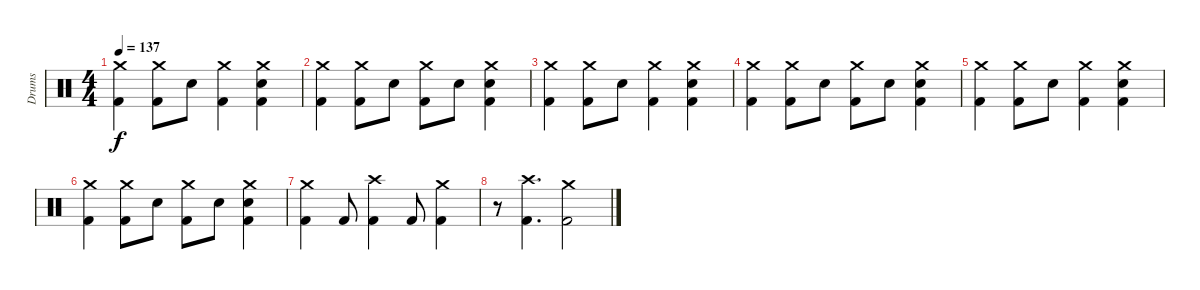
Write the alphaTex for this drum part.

\track ("Drums" "Drums") {instrument percussion}
\staff {score}
\articulation defaults
\ts (4 4)
\tempo 137
\clef neutral
\ks c
("Crash medium (hit)" "Kick (hit) 2").4{dy f} ("Crash medium (hit)" "Kick (hit) 2").8 "Electric Snare (hit)".8 ("Crash medium (hit)" "Kick (hit) 2").4 ("Crash medium (hit)" "Electric Snare (hit)" "Kick (hit) 2").4 |
("Crash medium (hit)" "Kick (hit) 2").4 ("Crash medium (hit)" "Kick (hit) 2").8 "Electric Snare (hit)".8 ("Crash medium (hit)" "Kick (hit) 2").8 "Electric Snare (hit)".8 ("Crash medium (hit)" "Electric Snare (hit)" "Kick (hit) 2").4 |
("Crash medium (hit)" "Kick (hit) 2").4 ("Crash medium (hit)" "Kick (hit) 2").8 "Electric Snare (hit)".8 ("Crash medium (hit)" "Kick (hit) 2").4 ("Crash medium (hit)" "Electric Snare (hit)" "Kick (hit) 2").4 |
("Crash medium (hit)" "Kick (hit) 2").4 ("Crash medium (hit)" "Kick (hit) 2").8 "Electric Snare (hit)".8 ("Crash medium (hit)" "Kick (hit) 2").8 "Electric Snare (hit)".8 ("Crash medium (hit)" "Electric Snare (hit)" "Kick (hit) 2").4 |
("Crash medium (hit)" "Kick (hit) 2").4 ("Crash medium (hit)" "Kick (hit) 2").8 "Electric Snare (hit)".8 ("Crash medium (hit)" "Kick (hit) 2").4 ("Crash medium (hit)" "Electric Snare (hit)" "Kick (hit) 2").4 |
("Crash medium (hit)" "Kick (hit) 2").4 ("Crash medium (hit)" "Kick (hit) 2").8 "Electric Snare (hit)".8 ("Crash medium (hit)" "Kick (hit) 2").8 "Electric Snare (hit)".8 ("Crash medium (hit)" "Electric Snare (hit)" "Kick (hit) 2").4 |
("Crash medium (hit)" "Kick (hit) 2").4 "Kick (hit) 2".8 ("Crash high (hit)" "Kick (hit) 2").4 "Kick (hit) 2".8 ("Crash medium (hit)" "Kick (hit) 2").4 |
r.8 ("Crash high (hit)" "Kick (hit) 2").4{d} ("Crash medium (hit)" "Kick (hit) 2").2
